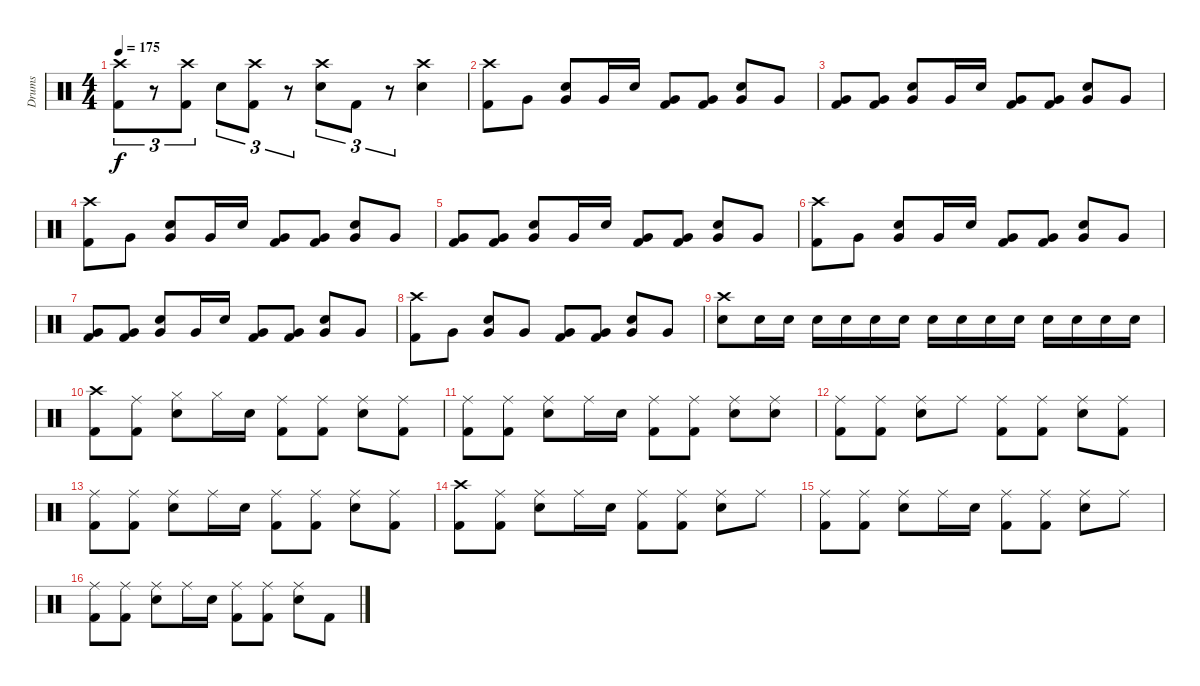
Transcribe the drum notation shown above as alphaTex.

\track ("Drums" "Drums") {instrument percussion}
\staff {score}
\articulation defaults
\ts (4 4)
\tempo 175
\clef neutral
\ks c
("Crash high (hit)" "Kick (hit) 2").8{tu (3 2) dy f} r.8{tu (3 2)} ("Crash high (hit)" "Kick (hit) 2").8{tu (3 2)} "Snare (hit) 2".8{tu (3 2)} ("Crash high (hit)" "Kick (hit) 2").8{tu (3 2)} r.8{tu (3 2)} ("Crash high (hit)" "Snare (hit) 2").8{tu (3 2)} "Kick (hit) 2".8{tu (3 2)} r.8{tu (3 2)} ("Crash high (hit)" "Snare (hit) 2").4 |
("Crash high (hit)" "Kick (hit) 2").8 "Very Low Tom (hit)".8 ("Snare (hit) 2" "Very Low Tom (hit)").8 "Very Low Tom (hit)".16 "Snare (hit) 2".16 ("Very Low Tom (hit)" "Kick (hit) 2").8 ("Very Low Tom (hit)" "Kick (hit) 2").8 ("Snare (hit) 2" "Very Low Tom (hit)").8 "Very Low Tom (hit)".8 |
("Very Low Tom (hit)" "Kick (hit) 2").8 ("Very Low Tom (hit)" "Kick (hit) 2").8 ("Snare (hit) 2" "Very Low Tom (hit)").8 "Very Low Tom (hit)".16 "Snare (hit) 2".16 ("Very Low Tom (hit)" "Kick (hit) 2").8 ("Very Low Tom (hit)" "Kick (hit) 2").8 ("Snare (hit) 2" "Very Low Tom (hit)").8 "Very Low Tom (hit)".8 |
("Crash high (hit)" "Kick (hit) 2").8 "Very Low Tom (hit)".8 ("Snare (hit) 2" "Very Low Tom (hit)").8 "Very Low Tom (hit)".16 "Snare (hit) 2".16 ("Very Low Tom (hit)" "Kick (hit) 2").8 ("Very Low Tom (hit)" "Kick (hit) 2").8 ("Snare (hit) 2" "Very Low Tom (hit)").8 "Very Low Tom (hit)".8 |
("Very Low Tom (hit)" "Kick (hit) 2").8 ("Very Low Tom (hit)" "Kick (hit) 2").8 ("Snare (hit) 2" "Very Low Tom (hit)").8 "Very Low Tom (hit)".16 "Snare (hit) 2".16 ("Very Low Tom (hit)" "Kick (hit) 2").8 ("Very Low Tom (hit)" "Kick (hit) 2").8 ("Snare (hit) 2" "Very Low Tom (hit)").8 "Very Low Tom (hit)".8 |
("Crash high (hit)" "Kick (hit) 2").8 "Very Low Tom (hit)".8 ("Snare (hit) 2" "Very Low Tom (hit)").8 "Very Low Tom (hit)".16 "Snare (hit) 2".16 ("Very Low Tom (hit)" "Kick (hit) 2").8 ("Very Low Tom (hit)" "Kick (hit) 2").8 ("Snare (hit) 2" "Very Low Tom (hit)").8 "Very Low Tom (hit)".8 |
("Very Low Tom (hit)" "Kick (hit) 2").8 ("Very Low Tom (hit)" "Kick (hit) 2").8 ("Snare (hit) 2" "Very Low Tom (hit)").8 "Very Low Tom (hit)".16 "Snare (hit) 2".16 ("Very Low Tom (hit)" "Kick (hit) 2").8 ("Very Low Tom (hit)" "Kick (hit) 2").8 ("Snare (hit) 2" "Very Low Tom (hit)").8 "Very Low Tom (hit)".8 |
("Crash high (hit)" "Kick (hit) 2").8 "Very Low Tom (hit)".8 ("Snare (hit) 2" "Very Low Tom (hit)").8 "Very Low Tom (hit)".8 ("Very Low Tom (hit)" "Kick (hit) 2").8 ("Very Low Tom (hit)" "Kick (hit) 2").8 ("Snare (hit) 2" "Very Low Tom (hit)").8 "Very Low Tom (hit)".8 |
("Crash high (hit)" "Snare (hit) 2").8 "Snare (hit) 2".16 "Snare (hit) 2".16 "Snare (hit) 2".16 "Snare (hit) 2".16 "Snare (hit) 2".16 "Snare (hit) 2".16 "Snare (hit) 2".16 "Snare (hit) 2".16 "Snare (hit) 2".16 "Snare (hit) 2".16 "Snare (hit) 2".16 "Snare (hit) 2".16 "Snare (hit) 2".16 "Snare (hit) 2".16 |
("Crash high (hit)" "Kick (hit) 2").8 ("Ride (middle)" "Kick (hit) 2").8 ("Hi-Hat (closed)" "Snare (hit) 2").8 "Hi-Hat (closed)".16 "Snare (hit) 2".16 ("Ride (middle)" "Kick (hit) 2").8 ("Ride (middle)" "Kick (hit) 2").8 ("Ride (middle)" "Snare (hit) 2").8 ("Ride (middle)" "Kick (hit) 2").8 |
("Ride (middle)" "Kick (hit) 2").8 ("Ride (middle)" "Kick (hit) 2").8 ("Ride (middle)" "Snare (hit) 2").8 "Ride (middle)".16 "Snare (hit) 2".16 ("Ride (middle)" "Kick (hit) 2").8 ("Ride (middle)" "Kick (hit) 2").8 ("Ride (middle)" "Snare (hit) 2").8 ("Ride (middle)" "Snare (hit) 2").8 |
("Ride (middle)" "Kick (hit) 2").8 ("Ride (middle)" "Kick (hit) 2").8 ("Ride (middle)" "Snare (hit) 2").8 "Ride (middle)".8 ("Ride (middle)" "Kick (hit) 2").8 ("Ride (middle)" "Kick (hit) 2").8 ("Ride (middle)" "Snare (hit) 2").8 ("Ride (middle)" "Kick (hit) 2").8 |
("Ride (middle)" "Kick (hit) 2").8 ("Ride (middle)" "Kick (hit) 2").8 ("Ride (middle)" "Snare (hit) 2").8 "Ride (middle)".16 "Snare (hit) 2".16 ("Ride (middle)" "Kick (hit) 2").8 ("Ride (middle)" "Kick (hit) 2").8 ("Ride (middle)" "Snare (hit) 2").8 ("Ride (middle)" "Kick (hit) 2").8 |
("Crash high (hit)" "Kick (hit) 2").8 ("Ride (middle)" "Kick (hit) 2").8 ("Ride (middle)" "Snare (hit) 2").8 "Ride (middle)".16 "Snare (hit) 2".16 ("Ride (middle)" "Kick (hit) 2").8 ("Ride (middle)" "Kick (hit) 2").8 ("Ride (middle)" "Snare (hit) 2").8 "Ride (middle)".8 |
("Ride (middle)" "Kick (hit) 2").8 ("Ride (middle)" "Kick (hit) 2").8 ("Ride (middle)" "Snare (hit) 2").8 "Ride (middle)".16 "Snare (hit) 2".16 ("Ride (middle)" "Kick (hit) 2").8 ("Ride (middle)" "Kick (hit) 2").8 ("Ride (middle)" "Snare (hit) 2").8 "Ride (middle)".8 |
("Ride (middle)" "Kick (hit) 2").8 ("Ride (middle)" "Kick (hit) 2").8 ("Ride (middle)" "Snare (hit) 2").8 "Ride (middle)".16 "Snare (hit) 2".16 ("Ride (middle)" "Kick (hit) 2").8 ("Ride (middle)" "Kick (hit) 2").8 ("Ride (middle)" "Snare (hit) 2").8 "Kick (hit) 2".8
